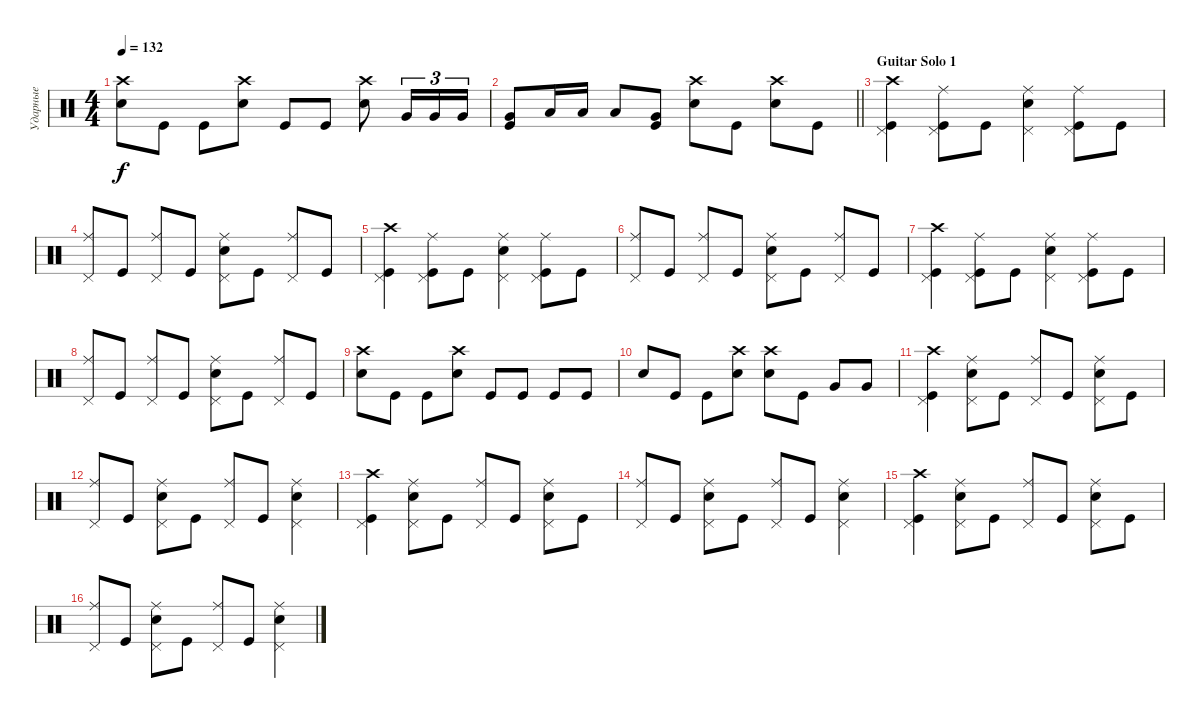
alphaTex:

\track ("Ударные" "Ударные") {instrument percussion}
\staff {score}
\articulation defaults
\ts (4 4)
\tempo 132
\clef neutral
\ks c
("Snare (hit) 2" "Crash high (hit)").8{dy f} "Kick (hit)".8 "Kick (hit)".8 ("Snare (hit) 2" "Crash high (hit)").8 "Kick (hit)".8 "Kick (hit)".8 ("Snare (hit) 2" "Crash high (hit)").8 "Very Low Tom (hit)".16{tu (3 2)} "Very Low Tom (hit)".16{tu (3 2)} "Very Low Tom (hit)".16{tu (3 2)} |
\barLineRight lightlight
("Kick (hit)" "Very Low Tom (hit)").8 "Low Tom (hit)".16 "Low Tom (hit)".16 "Low Tom (hit)".8 ("Very Low Tom (hit)" "Kick (hit)").8 ("Snare (hit) 2" "Crash high (hit)").8 "Kick (hit)".8 ("Snare (hit) 2" "Crash high (hit)").8 "Kick (hit)".8 |
\section ("" "Guitar Solo 1")
("Kick (hit)" "Pedal Hi-Hat (hit)" "Crash high (hit)").4 ("Kick (hit)" "Pedal Hi-Hat (hit)" "Ride (middle)").8 "Kick (hit)".8 ("Snare (hit) 2" "Pedal Hi-Hat (hit)" "Ride (middle)").4 ("Kick (hit)" "Pedal Hi-Hat (hit)" "Ride (middle)").8 "Kick (hit)".8 |
("Pedal Hi-Hat (hit)" "Ride (middle)").8 "Kick (hit)".8 ("Pedal Hi-Hat (hit)" "Ride (middle)").8 "Kick (hit)".8 ("Snare (hit) 2" "Pedal Hi-Hat (hit)" "Ride (middle)").8 "Kick (hit)".8 ("Pedal Hi-Hat (hit)" "Ride (middle)").8 "Kick (hit)".8 |
("Kick (hit)" "Pedal Hi-Hat (hit)" "Crash high (hit)").4 ("Kick (hit)" "Pedal Hi-Hat (hit)" "Ride (middle)").8 "Kick (hit)".8 ("Snare (hit) 2" "Pedal Hi-Hat (hit)" "Ride (middle)").4 ("Kick (hit)" "Pedal Hi-Hat (hit)" "Ride (middle)").8 "Kick (hit)".8 |
("Pedal Hi-Hat (hit)" "Ride (middle)").8 "Kick (hit)".8 ("Pedal Hi-Hat (hit)" "Ride (middle)").8 "Kick (hit)".8 ("Snare (hit) 2" "Pedal Hi-Hat (hit)" "Ride (middle)").8 "Kick (hit)".8 ("Pedal Hi-Hat (hit)" "Ride (middle)").8 "Kick (hit)".8 |
("Kick (hit)" "Pedal Hi-Hat (hit)" "Crash high (hit)").4 ("Kick (hit)" "Pedal Hi-Hat (hit)" "Ride (middle)").8 "Kick (hit)".8 ("Snare (hit) 2" "Pedal Hi-Hat (hit)" "Ride (middle)").4 ("Kick (hit)" "Pedal Hi-Hat (hit)" "Ride (middle)").8 "Kick (hit)".8 |
("Pedal Hi-Hat (hit)" "Ride (middle)").8 "Kick (hit)".8 ("Pedal Hi-Hat (hit)" "Ride (middle)").8 "Kick (hit)".8 ("Snare (hit) 2" "Pedal Hi-Hat (hit)" "Ride (middle)").8 "Kick (hit)".8 ("Pedal Hi-Hat (hit)" "Ride (middle)").8 "Kick (hit)".8 |
("Snare (hit) 2" "Crash high (hit)").8 "Kick (hit)".8 "Kick (hit)".8 ("Snare (hit) 2" "Crash high (hit)").8 "Kick (hit)".8 "Kick (hit)".8 "Kick (hit)".8 "Kick (hit)".8 |
"Snare (hit) 2".8 "Kick (hit)".8 "Kick (hit)".8 ("Snare (hit) 2" "Crash high (hit)").8 ("Snare (hit) 2" "Crash high (hit)").8 "Kick (hit)".8 "Very Low Tom (hit)".8 "Very Low Tom (hit)".8 |
("Kick (hit)" "Crash high (hit)" "Pedal Hi-Hat (hit)").4 ("Snare (hit) 2" "Ride (middle)" "Pedal Hi-Hat (hit)").8 "Kick (hit)".8 ("Ride (middle)" "Pedal Hi-Hat (hit)").8 "Kick (hit)".8 ("Ride (middle)" "Snare (hit) 2" "Pedal Hi-Hat (hit)").8 "Kick (hit)".8 |
("Pedal Hi-Hat (hit)" "Ride (middle)").8 "Kick (hit)".8 ("Snare (hit) 2" "Pedal Hi-Hat (hit)" "Ride (middle)").8 "Kick (hit)".8 ("Pedal Hi-Hat (hit)" "Ride (middle)").8 "Kick (hit)".8 ("Snare (hit) 2" "Pedal Hi-Hat (hit)" "Ride (middle)").4 |
("Kick (hit)" "Crash high (hit)" "Pedal Hi-Hat (hit)").4 ("Snare (hit) 2" "Ride (middle)" "Pedal Hi-Hat (hit)").8 "Kick (hit)".8 ("Ride (middle)" "Pedal Hi-Hat (hit)").8 "Kick (hit)".8 ("Ride (middle)" "Snare (hit) 2" "Pedal Hi-Hat (hit)").8 "Kick (hit)".8 |
("Pedal Hi-Hat (hit)" "Ride (middle)").8 "Kick (hit)".8 ("Snare (hit) 2" "Pedal Hi-Hat (hit)" "Ride (middle)").8 "Kick (hit)".8 ("Pedal Hi-Hat (hit)" "Ride (middle)").8 "Kick (hit)".8 ("Snare (hit) 2" "Pedal Hi-Hat (hit)" "Ride (middle)").4 |
("Kick (hit)" "Crash high (hit)" "Pedal Hi-Hat (hit)").4 ("Snare (hit) 2" "Ride (middle)" "Pedal Hi-Hat (hit)").8 "Kick (hit)".8 ("Ride (middle)" "Pedal Hi-Hat (hit)").8 "Kick (hit)".8 ("Ride (middle)" "Snare (hit) 2" "Pedal Hi-Hat (hit)").8 "Kick (hit)".8 |
("Pedal Hi-Hat (hit)" "Ride (middle)").8 "Kick (hit)".8 ("Snare (hit) 2" "Pedal Hi-Hat (hit)" "Ride (middle)").8 "Kick (hit)".8 ("Pedal Hi-Hat (hit)" "Ride (middle)").8 "Kick (hit)".8 ("Snare (hit) 2" "Pedal Hi-Hat (hit)" "Ride (middle)").4
